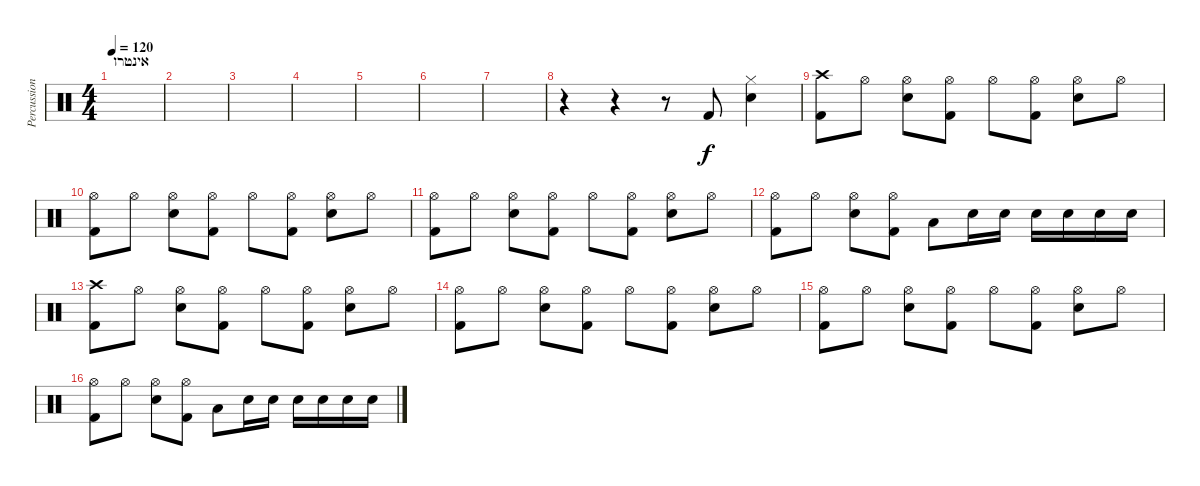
\track ("Percussion" "Percussion") {instrument percussion}
\staff {score}
\articulation defaults
\ts (4 4)
\section ("" "אינטרו")
\tempo 120
\clef neutral
\ks c
|
|
|
|
|
|
|
r.4 r.4 r.8 "Kick (hit) 2".8 ("Hi-Hat (closed)" "Electric Snare (hit)").4 |
("Crash high (hit)" "Kick (hit) 2").8 "Hi-Hat (open)".8 ("Hi-Hat (open)" "Electric Snare (hit)").8 ("Hi-Hat (open)" "Kick (hit) 2").8 "Hi-Hat (open)".8 ("Hi-Hat (open)" "Kick (hit) 2").8 ("Hi-Hat (open)" "Electric Snare (hit)").8 "Hi-Hat (open)".8 |
("Hi-Hat (open)" "Kick (hit) 2").8 "Hi-Hat (open)".8 ("Hi-Hat (open)" "Electric Snare (hit)").8 ("Hi-Hat (open)" "Kick (hit) 2").8 "Hi-Hat (open)".8 ("Hi-Hat (open)" "Kick (hit) 2").8 ("Hi-Hat (open)" "Electric Snare (hit)").8 "Hi-Hat (open)".8 |
("Hi-Hat (open)" "Kick (hit) 2").8 "Hi-Hat (open)".8 ("Hi-Hat (open)" "Electric Snare (hit)").8 ("Hi-Hat (open)" "Kick (hit) 2").8 "Hi-Hat (open)".8 ("Hi-Hat (open)" "Kick (hit) 2").8 ("Hi-Hat (open)" "Electric Snare (hit)").8 "Hi-Hat (open)".8 |
("Hi-Hat (open)" "Kick (hit) 2").8 "Hi-Hat (open)".8 ("Hi-Hat (open)" "Electric Snare (hit)").8 ("Hi-Hat (open)" "Kick (hit) 2").8 "Low Tom (hit)".8 "Electric Snare (hit)".16 "Electric Snare (hit)".16 "Electric Snare (hit)".16 "Electric Snare (hit)".16 "Electric Snare (hit)".16 "Electric Snare (hit)".16 |
("Crash high (hit)" "Kick (hit) 2").8 "Hi-Hat (open)".8 ("Hi-Hat (open)" "Electric Snare (hit)").8 ("Hi-Hat (open)" "Kick (hit) 2").8 "Hi-Hat (open)".8 ("Hi-Hat (open)" "Kick (hit) 2").8 ("Hi-Hat (open)" "Electric Snare (hit)").8 "Hi-Hat (open)".8 |
("Hi-Hat (open)" "Kick (hit) 2").8 "Hi-Hat (open)".8 ("Hi-Hat (open)" "Electric Snare (hit)").8 ("Hi-Hat (open)" "Kick (hit) 2").8 "Hi-Hat (open)".8 ("Hi-Hat (open)" "Kick (hit) 2").8 ("Hi-Hat (open)" "Electric Snare (hit)").8 "Hi-Hat (open)".8 |
("Hi-Hat (open)" "Kick (hit) 2").8 "Hi-Hat (open)".8 ("Hi-Hat (open)" "Electric Snare (hit)").8 ("Hi-Hat (open)" "Kick (hit) 2").8 "Hi-Hat (open)".8 ("Hi-Hat (open)" "Kick (hit) 2").8 ("Hi-Hat (open)" "Electric Snare (hit)").8 "Hi-Hat (open)".8 |
("Hi-Hat (open)" "Kick (hit) 2").8 "Hi-Hat (open)".8 ("Hi-Hat (open)" "Electric Snare (hit)").8 ("Hi-Hat (open)" "Kick (hit) 2").8 "Low Tom (hit)".8 "Electric Snare (hit)".16 "Electric Snare (hit)".16 "Electric Snare (hit)".16 "Electric Snare (hit)".16 "Electric Snare (hit)".16 "Electric Snare (hit)".16
